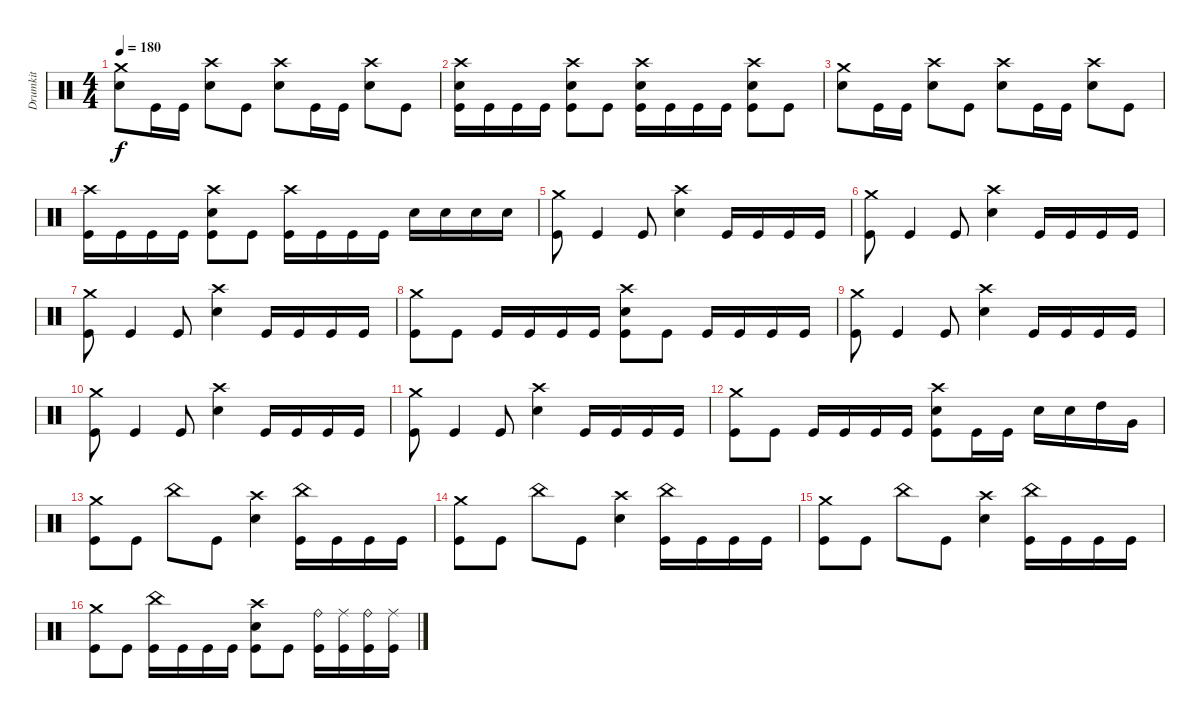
\track ("Drumkit" "Drumkit") {instrument percussion}
\staff {score}
\articulation defaults
\ts (4 4)
\tempo 180
\clef neutral
\ks c
("Crash medium (hit)" "Snare (hit) 2").8{dy f} "Kick (hit)".16 "Kick (hit)".16 ("Crash high (hit)" "Snare (hit) 2").8 "Kick (hit)".8 ("Crash high (hit)" "Snare (hit) 2").8 "Kick (hit)".16 "Kick (hit)".16 ("Crash high (hit)" "Snare (hit) 2").8 "Kick (hit)".8 |
("Crash high (hit)" "Snare (hit) 2" "Kick (hit)").16 "Kick (hit)".16 "Kick (hit)".16 "Kick (hit)".16 ("Crash high (hit)" "Snare (hit) 2" "Kick (hit)").8 "Kick (hit)".8 ("Crash high (hit)" "Snare (hit) 2" "Kick (hit)").16 "Kick (hit)".16 "Kick (hit)".16 "Kick (hit)".16 ("Crash high (hit)" "Snare (hit) 2" "Kick (hit)").8 "Kick (hit)".8 |
("Crash medium (hit)" "Snare (hit) 2").8 "Kick (hit)".16 "Kick (hit)".16 ("Crash high (hit)" "Snare (hit) 2").8 "Kick (hit)".8 ("Crash high (hit)" "Snare (hit) 2").8 "Kick (hit)".16 "Kick (hit)".16 ("Crash high (hit)" "Snare (hit) 2").8 "Kick (hit)".8 |
("Crash high (hit)" "Kick (hit)").16 "Kick (hit)".16 "Kick (hit)".16 "Kick (hit)".16 ("Crash high (hit)" "Snare (hit) 2" "Kick (hit)").8 "Kick (hit)".8 ("Crash high (hit)" "Kick (hit)").16 "Kick (hit)".16 "Kick (hit)".16 "Kick (hit)".16 "Snare (hit) 2".16 "Snare (hit) 2".16 "Snare (hit) 2".16 "Snare (hit) 2".16 |
("Crash medium (hit)" "Kick (hit)").8 "Kick (hit)".4 "Kick (hit)".8 ("Crash high (hit)" "Snare (hit) 2").4 "Kick (hit)".16 "Kick (hit)".16 "Kick (hit)".16 "Kick (hit)".16 |
("Crash medium (hit)" "Kick (hit)").8 "Kick (hit)".4 "Kick (hit)".8 ("Crash high (hit)" "Snare (hit) 2").4 "Kick (hit)".16 "Kick (hit)".16 "Kick (hit)".16 "Kick (hit)".16 |
("Crash medium (hit)" "Kick (hit)").8 "Kick (hit)".4 "Kick (hit)".8 ("Crash high (hit)" "Snare (hit) 2").4 "Kick (hit)".16 "Kick (hit)".16 "Kick (hit)".16 "Kick (hit)".16 |
("Crash medium (hit)" "Kick (hit)").8 "Kick (hit)".8 "Kick (hit)".16 "Kick (hit)".16 "Kick (hit)".16 "Kick (hit)".16 ("Crash high (hit)" "Snare (hit) 2" "Kick (hit)").8 "Kick (hit)".8 "Kick (hit)".16 "Kick (hit)".16 "Kick (hit)".16 "Kick (hit)".16 |
("Crash medium (hit)" "Kick (hit)").8 "Kick (hit)".4 "Kick (hit)".8 ("Crash high (hit)" "Snare (hit) 2").4 "Kick (hit)".16 "Kick (hit)".16 "Kick (hit)".16 "Kick (hit)".16 |
("Crash medium (hit)" "Kick (hit)").8 "Kick (hit)".4 "Kick (hit)".8 ("Crash high (hit)" "Snare (hit) 2").4 "Kick (hit)".16 "Kick (hit)".16 "Kick (hit)".16 "Kick (hit)".16 |
("Crash medium (hit)" "Kick (hit)").8 "Kick (hit)".4 "Kick (hit)".8 ("Crash high (hit)" "Snare (hit) 2").4 "Kick (hit)".16 "Kick (hit)".16 "Kick (hit)".16 "Kick (hit)".16 |
("Crash medium (hit)" "Kick (hit)").8 "Kick (hit)".8 "Kick (hit)".16 "Kick (hit)".16 "Kick (hit)".16 "Kick (hit)".16 ("Crash high (hit)" "Snare (hit) 2" "Kick (hit)").8 "Kick (hit)".16 "Kick (hit)".16 "Snare (hit) 2".16 "Snare (hit) 2".16 "High Tom (hit)".16 "Very Low Tom (hit)".16 |
("Crash medium (hit)" "Kick (hit)").8 "Kick (hit)".8 "China (hit)".8 "Kick (hit)".8 ("Crash high (hit)" "Snare (hit) 2").4 ("China (hit)" "Kick (hit)").16 "Kick (hit)".16 "Kick (hit)".16 "Kick (hit)".16 |
("Crash medium (hit)" "Kick (hit)").8 "Kick (hit)".8 "China (hit)".8 "Kick (hit)".8 ("Crash high (hit)" "Snare (hit) 2").4 ("China (hit)" "Kick (hit)").16 "Kick (hit)".16 "Kick (hit)".16 "Kick (hit)".16 |
("Crash medium (hit)" "Kick (hit)").8 "Kick (hit)".8 "China (hit)".8 "Kick (hit)".8 ("Crash high (hit)" "Snare (hit) 2").4 ("China (hit)" "Kick (hit)").16 "Kick (hit)".16 "Kick (hit)".16 "Kick (hit)".16 |
("Crash medium (hit)" "Kick (hit)").8 "Kick (hit)".8 ("China (hit)" "Kick (hit)").16 "Kick (hit)".16 "Kick (hit)".16 "Kick (hit)".16 ("Crash high (hit)" "Snare (hit) 2" "Kick (hit)").8 "Kick (hit)".8 ("Ride (bell)" "Kick (hit)").16 ("Ride (middle)" "Kick (hit)").16 ("Ride (bell)" "Kick (hit)").16 ("Ride (middle)" "Kick (hit)").16
